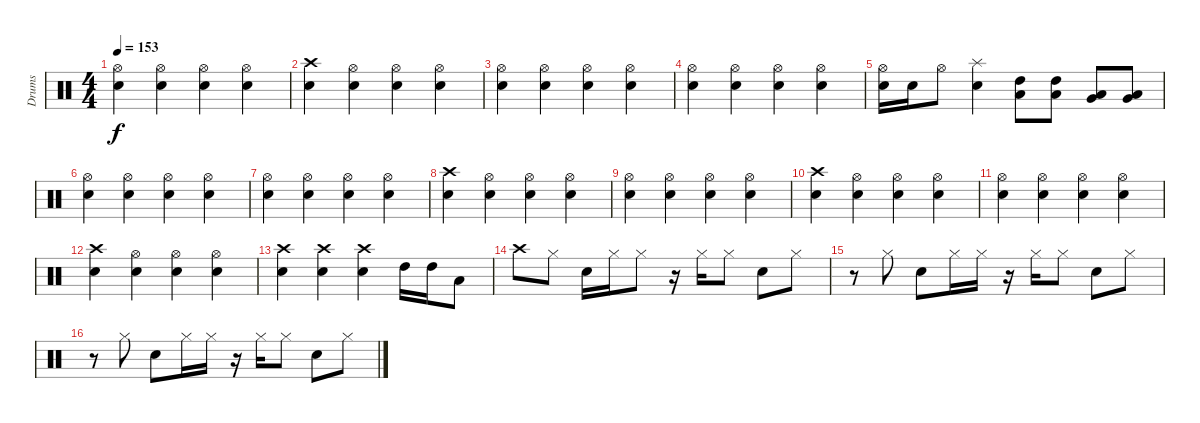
\track ("Drums" "Drums") {instrument percussion}
\staff {score}
\articulation defaults
\ts (4 4)
\tempo 153
\clef neutral
\ks c
("Hi-Hat (open)" "Snare (hit) 2").4{dy f} ("Hi-Hat (open)" "Snare (hit) 2").4 ("Hi-Hat (open)" "Snare (hit) 2").4 ("Hi-Hat (open)" "Snare (hit) 2").4 |
("Crash high (hit)" "Snare (hit) 2").4 ("Hi-Hat (open)" "Snare (hit) 2").4 ("Hi-Hat (open)" "Snare (hit) 2").4 ("Hi-Hat (open)" "Snare (hit) 2").4 |
("Hi-Hat (open)" "Snare (hit) 2").4 ("Hi-Hat (open)" "Snare (hit) 2").4 ("Hi-Hat (open)" "Snare (hit) 2").4 ("Hi-Hat (open)" "Snare (hit) 2").4 |
("Hi-Hat (open)" "Snare (hit) 2").4 ("Hi-Hat (open)" "Snare (hit) 2").4 ("Hi-Hat (open)" "Snare (hit) 2").4 ("Hi-Hat (open)" "Snare (hit) 2").4 |
("Hi-Hat (open)" "Snare (hit) 2").16 "Snare (hit) 2".16 "Hi-Hat (open)".8 ("Splash (hit)" "Snare (hit) 2").4 ("High Tom (hit)" "Low Tom (hit)").8 ("High Tom (hit)" "Low Tom (hit)").8 ("Low Tom (hit)" "Very Low Tom (hit)").8 ("Low Tom (hit)" "Very Low Tom (hit)").8 |
("Hi-Hat (open)" "Snare (hit) 2").4 ("Hi-Hat (open)" "Snare (hit) 2").4 ("Hi-Hat (open)" "Snare (hit) 2").4 ("Hi-Hat (open)" "Snare (hit) 2").4 |
("Hi-Hat (open)" "Snare (hit) 2").4 ("Hi-Hat (open)" "Snare (hit) 2").4 ("Hi-Hat (open)" "Snare (hit) 2").4 ("Hi-Hat (open)" "Snare (hit) 2").4 |
("Crash high (hit)" "Snare (hit) 2").4 ("Hi-Hat (open)" "Snare (hit) 2").4 ("Hi-Hat (open)" "Snare (hit) 2").4 ("Hi-Hat (open)" "Snare (hit) 2").4 |
("Hi-Hat (open)" "Snare (hit) 2").4 ("Hi-Hat (open)" "Snare (hit) 2").4 ("Hi-Hat (open)" "Snare (hit) 2").4 ("Hi-Hat (open)" "Snare (hit) 2").4 |
("Crash high (hit)" "Snare (hit) 2").4 ("Hi-Hat (open)" "Snare (hit) 2").4 ("Hi-Hat (open)" "Snare (hit) 2").4 ("Hi-Hat (open)" "Snare (hit) 2").4 |
("Hi-Hat (open)" "Snare (hit) 2").4 ("Hi-Hat (open)" "Snare (hit) 2").4 ("Hi-Hat (open)" "Snare (hit) 2").4 ("Hi-Hat (open)" "Snare (hit) 2").4 |
("Crash high (hit)" "Snare (hit) 2").4 ("Hi-Hat (open)" "Snare (hit) 2").4 ("Hi-Hat (open)" "Snare (hit) 2").4 ("Hi-Hat (open)" "Snare (hit) 2").4 |
("Crash high (hit)" "Snare (hit) 2").4 ("Crash high (hit)" "Snare (hit) 2").4 ("Crash high (hit)" "Snare (hit) 2").4 "High Tom (hit)".16 "High Tom (hit)".16 "Low Tom (hit)".8 |
"Crash high (hit)".8 "Hi-Hat (closed)".8 "Snare (hit) 2".16 "Hi-Hat (closed)".16 "Hi-Hat (closed)".8 r.16 "Hi-Hat (closed)".16 "Hi-Hat (closed)".8 "Snare (hit) 2".8 "Hi-Hat (closed)".8 |
r.8 "Hi-Hat (closed)".8 "Snare (hit) 2".8 "Hi-Hat (closed)".16 "Hi-Hat (closed)".16 r.16 "Hi-Hat (closed)".16 "Hi-Hat (closed)".8 "Snare (hit) 2".8 "Hi-Hat (closed)".8 |
r.8 "Hi-Hat (closed)".8 "Snare (hit) 2".8 "Hi-Hat (closed)".16 "Hi-Hat (closed)".16 r.16 "Hi-Hat (closed)".16 "Hi-Hat (closed)".8 "Snare (hit) 2".8 "Hi-Hat (closed)".8
